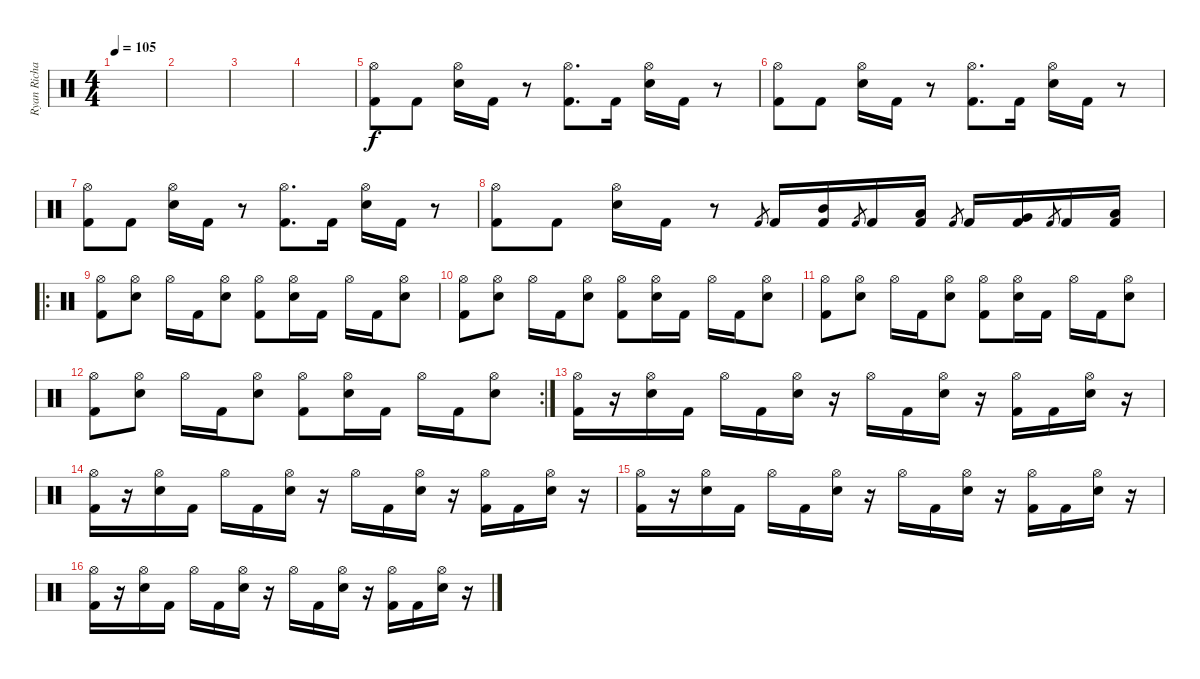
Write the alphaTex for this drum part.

\track ("Ryan Richards" "Ryan Richa") {instrument percussion}
\staff {score}
\articulation defaults
\ts (4 4)
\tempo 105
\clef neutral
\ks c
|
|
|
|
("Hi-Hat (open)" "Kick (hit) 2").8 "Kick (hit) 2".8 ("Hi-Hat (open)" "Snare (hit) 2").16 "Kick (hit) 2".16 r.8 ("Hi-Hat (open)" "Kick (hit) 2").8{d} "Kick (hit) 2".16 ("Hi-Hat (open)" "Snare (hit) 2").16 "Kick (hit) 2".16 r.8 |
("Hi-Hat (open)" "Kick (hit) 2").8 "Kick (hit) 2".8 ("Hi-Hat (open)" "Snare (hit) 2").16 "Kick (hit) 2".16 r.8 ("Hi-Hat (open)" "Kick (hit) 2").8{d} "Kick (hit) 2".16 ("Hi-Hat (open)" "Snare (hit) 2").16 "Kick (hit) 2".16 r.8 |
("Hi-Hat (open)" "Kick (hit) 2").8 "Kick (hit) 2".8 ("Hi-Hat (open)" "Snare (hit) 2").16 "Kick (hit) 2".16 r.8 ("Hi-Hat (open)" "Kick (hit) 2").8{d} "Kick (hit) 2".16 ("Hi-Hat (open)" "Snare (hit) 2").16 "Kick (hit) 2".16 r.8 |
("Hi-Hat (open)" "Kick (hit) 2").8 "Kick (hit) 2".8 ("Hi-Hat (open)" "Snare (hit) 2").16 "Kick (hit) 2".16 r.8 "Kick (hit) 2".8{gr} "Kick (hit) 2".16 ("Mid Tom (hit)" "Kick (hit) 2").16 "Kick (hit) 2".8{gr} "Kick (hit) 2".16 ("Low Tom (hit)" "Kick (hit) 2").16 "Kick (hit) 2".8{gr} "Kick (hit) 2".16 ("Very Low Tom (hit)" "Kick (hit) 2").16 "Kick (hit) 2".8{gr} "Kick (hit) 2".16 ("Low Floor Tom (hit)" "Kick (hit) 2").16 |
\ro
("Hi-Hat (open)" "Kick (hit) 2").8 ("Hi-Hat (open)" "Snare (hit) 2").8 "Hi-Hat (open)".16 "Kick (hit) 2".16 ("Hi-Hat (open)" "Snare (hit) 2").8 ("Hi-Hat (open)" "Kick (hit) 2").8 ("Hi-Hat (open)" "Snare (hit) 2").16 "Kick (hit) 2".16 "Hi-Hat (open)".16 "Kick (hit) 2".16 ("Hi-Hat (open)" "Snare (hit) 2").8 |
("Hi-Hat (open)" "Kick (hit) 2").8 ("Hi-Hat (open)" "Snare (hit) 2").8 "Hi-Hat (open)".16 "Kick (hit) 2".16 ("Hi-Hat (open)" "Snare (hit) 2").8 ("Hi-Hat (open)" "Kick (hit) 2").8 ("Hi-Hat (open)" "Snare (hit) 2").16 "Kick (hit) 2".16 "Hi-Hat (open)".16 "Kick (hit) 2".16 ("Hi-Hat (open)" "Snare (hit) 2").8 |
("Hi-Hat (open)" "Kick (hit) 2").8 ("Hi-Hat (open)" "Snare (hit) 2").8 "Hi-Hat (open)".16 "Kick (hit) 2".16 ("Hi-Hat (open)" "Snare (hit) 2").8 ("Hi-Hat (open)" "Kick (hit) 2").8 ("Hi-Hat (open)" "Snare (hit) 2").16 "Kick (hit) 2".16 "Hi-Hat (open)".16 "Kick (hit) 2".16 ("Hi-Hat (open)" "Snare (hit) 2").8 |
\rc 2
("Hi-Hat (open)" "Kick (hit) 2").8 ("Hi-Hat (open)" "Snare (hit) 2").8 "Hi-Hat (open)".16 "Kick (hit) 2".16 ("Hi-Hat (open)" "Snare (hit) 2").8 ("Hi-Hat (open)" "Kick (hit) 2").8 ("Hi-Hat (open)" "Snare (hit) 2").16 "Kick (hit) 2".16 "Hi-Hat (open)".16 "Kick (hit) 2".16 ("Hi-Hat (open)" "Snare (hit) 2").8 |
("Hi-Hat (open)" "Kick (hit) 2").16 r.16 ("Hi-Hat (open)" "Snare (hit) 2").16 "Kick (hit) 2".16 "Hi-Hat (open)".16 "Kick (hit) 2".16 ("Hi-Hat (open)" "Snare (hit) 2").16 r.16 "Hi-Hat (open)".16 "Kick (hit) 2".16 ("Hi-Hat (open)" "Snare (hit) 2").16 r.16 ("Hi-Hat (open)" "Kick (hit) 2").16 "Kick (hit) 2".16 ("Hi-Hat (open)" "Snare (hit) 2").16 r.16 |
("Hi-Hat (open)" "Kick (hit) 2").16 r.16 ("Hi-Hat (open)" "Snare (hit) 2").16 "Kick (hit) 2".16 "Hi-Hat (open)".16 "Kick (hit) 2".16 ("Hi-Hat (open)" "Snare (hit) 2").16 r.16 "Hi-Hat (open)".16 "Kick (hit) 2".16 ("Hi-Hat (open)" "Snare (hit) 2").16 r.16 ("Hi-Hat (open)" "Kick (hit) 2").16 "Kick (hit) 2".16 ("Hi-Hat (open)" "Snare (hit) 2").16 r.16 |
("Hi-Hat (open)" "Kick (hit) 2").16 r.16 ("Hi-Hat (open)" "Snare (hit) 2").16 "Kick (hit) 2".16 "Hi-Hat (open)".16 "Kick (hit) 2".16 ("Hi-Hat (open)" "Snare (hit) 2").16 r.16 "Hi-Hat (open)".16 "Kick (hit) 2".16 ("Hi-Hat (open)" "Snare (hit) 2").16 r.16 ("Hi-Hat (open)" "Kick (hit) 2").16 "Kick (hit) 2".16 ("Hi-Hat (open)" "Snare (hit) 2").16 r.16 |
("Hi-Hat (open)" "Kick (hit) 2").16 r.16 ("Hi-Hat (open)" "Snare (hit) 2").16 "Kick (hit) 2".16 "Hi-Hat (open)".16 "Kick (hit) 2".16 ("Hi-Hat (open)" "Snare (hit) 2").16 r.16 "Hi-Hat (open)".16 "Kick (hit) 2".16 ("Hi-Hat (open)" "Snare (hit) 2").16 r.16 ("Hi-Hat (open)" "Kick (hit) 2").16 "Kick (hit) 2".16 ("Hi-Hat (open)" "Snare (hit) 2").16 r.16
